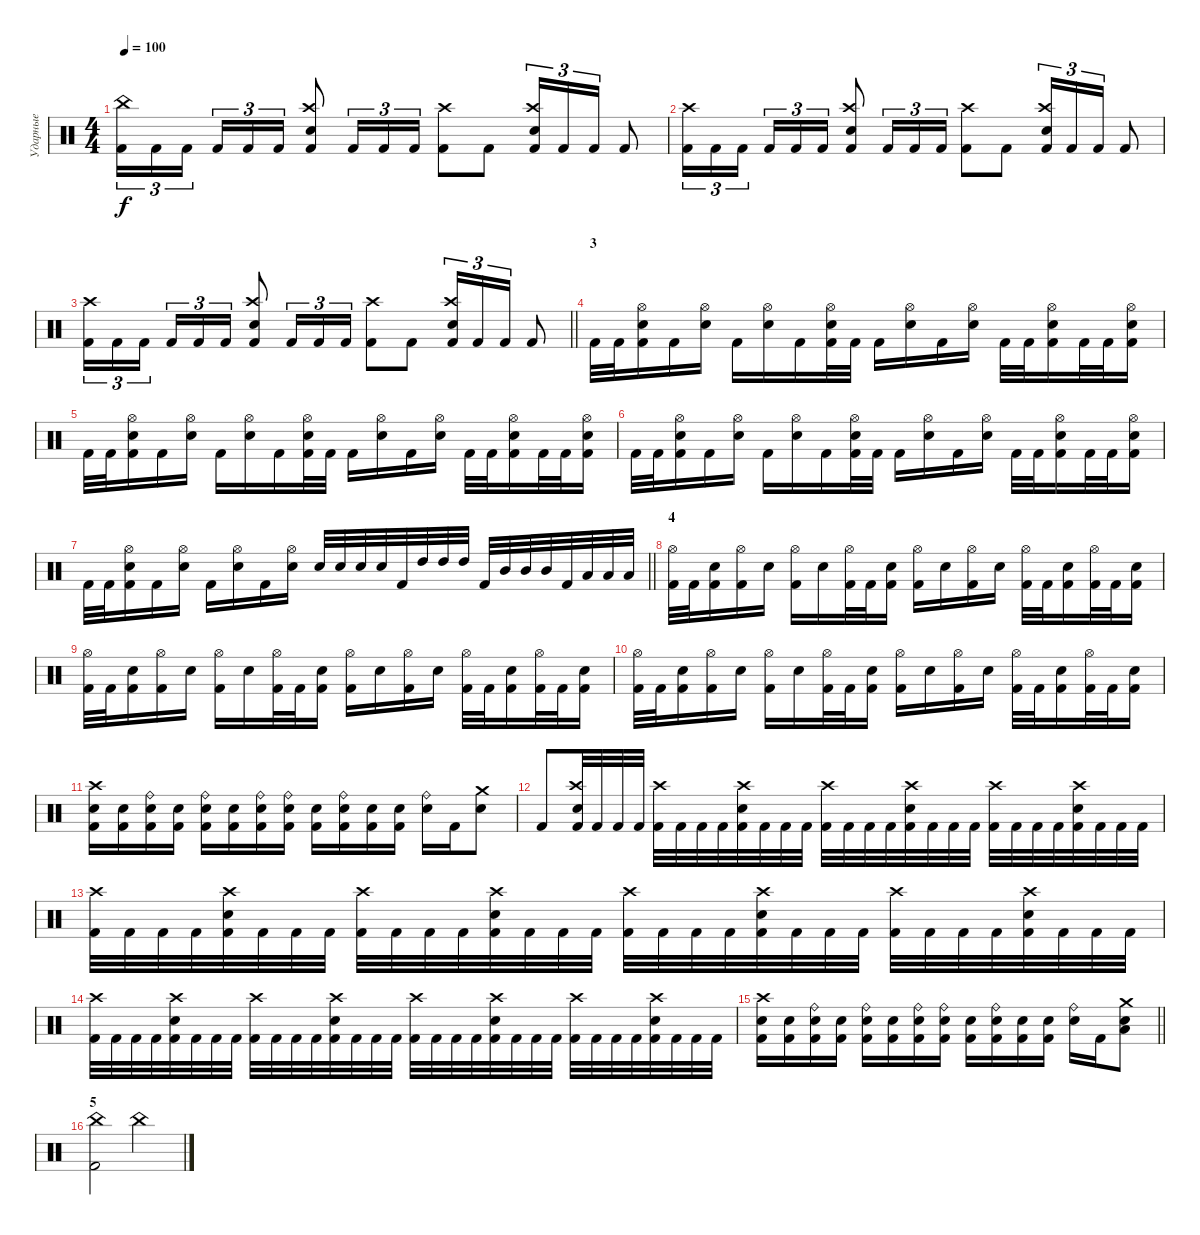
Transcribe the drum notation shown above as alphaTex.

\track ("Ударные" "Ударные") {instrument percussion}
\staff {score}
\articulation defaults
\ts (4 4)
\tempo 100
\clef neutral
\ks c
("China (hit)" "Kick (hit) 2").16{tu (3 2) dy f} "Kick (hit) 2".16{tu (3 2)} "Kick (hit) 2".16{tu (3 2) beam splitsecondary} "Kick (hit) 2".16{tu (3 2)} "Kick (hit) 2".16{tu (3 2)} "Kick (hit) 2".16{tu (3 2)} ("Crash high (hit)" "Electric Snare (hit)" "Kick (hit) 2").8 "Kick (hit) 2".16{tu (3 2)} "Kick (hit) 2".16{tu (3 2)} "Kick (hit) 2".16{tu (3 2)} ("Crash high (hit)" "Kick (hit) 2").8 "Kick (hit) 2".8 ("Crash high (hit)" "Electric Snare (hit)" "Kick (hit) 2").16{tu (3 2)} "Kick (hit) 2".16{tu (3 2)} "Kick (hit) 2".16{tu (3 2)} "Kick (hit) 2".8 |
("Crash high (hit)" "Kick (hit) 2").16{tu (3 2)} "Kick (hit) 2".16{tu (3 2)} "Kick (hit) 2".16{tu (3 2) beam splitsecondary} "Kick (hit) 2".16{tu (3 2)} "Kick (hit) 2".16{tu (3 2)} "Kick (hit) 2".16{tu (3 2)} ("Crash high (hit)" "Electric Snare (hit)" "Kick (hit) 2").8 "Kick (hit) 2".16{tu (3 2)} "Kick (hit) 2".16{tu (3 2)} "Kick (hit) 2".16{tu (3 2)} ("Crash high (hit)" "Kick (hit) 2").8 "Kick (hit) 2".8 ("Crash high (hit)" "Electric Snare (hit)" "Kick (hit) 2").16{tu (3 2)} "Kick (hit) 2".16{tu (3 2)} "Kick (hit) 2".16{tu (3 2)} "Kick (hit) 2".8 |
\barLineRight lightlight
("Crash high (hit)" "Kick (hit) 2").16{tu (3 2)} "Kick (hit) 2".16{tu (3 2)} "Kick (hit) 2".16{tu (3 2) beam splitsecondary} "Kick (hit) 2".16{tu (3 2)} "Kick (hit) 2".16{tu (3 2)} "Kick (hit) 2".16{tu (3 2)} ("Crash high (hit)" "Electric Snare (hit)" "Kick (hit) 2").8 "Kick (hit) 2".16{tu (3 2)} "Kick (hit) 2".16{tu (3 2)} "Kick (hit) 2".16{tu (3 2)} ("Crash high (hit)" "Kick (hit) 2").8 "Kick (hit) 2".8 ("Crash high (hit)" "Electric Snare (hit)" "Kick (hit) 2").16{tu (3 2)} "Kick (hit) 2".16{tu (3 2)} "Kick (hit) 2".16{tu (3 2)} "Kick (hit) 2".8 |
\section ("" "3")
"Kick (hit) 2".32 "Kick (hit) 2".32 ("Hi-Hat (open)" "Electric Snare (hit)" "Kick (hit) 2").16 "Kick (hit) 2".16 ("Hi-Hat (open)" "Electric Snare (hit)").16 "Kick (hit) 2".16 ("Hi-Hat (open)" "Electric Snare (hit)").16 "Kick (hit) 2".16 ("Hi-Hat (open)" "Electric Snare (hit)" "Kick (hit) 2").32 "Kick (hit) 2".32 "Kick (hit) 2".16 ("Hi-Hat (open)" "Electric Snare (hit)").16 "Kick (hit) 2".16 ("Hi-Hat (open)" "Electric Snare (hit)").16 "Kick (hit) 2".32 "Kick (hit) 2".32 ("Hi-Hat (open)" "Electric Snare (hit)" "Kick (hit) 2").16 "Kick (hit) 2".32 "Kick (hit) 2".32 ("Hi-Hat (open)" "Electric Snare (hit)" "Kick (hit) 2").16 |
"Kick (hit) 2".32 "Kick (hit) 2".32 ("Hi-Hat (open)" "Electric Snare (hit)" "Kick (hit) 2").16 "Kick (hit) 2".16 ("Hi-Hat (open)" "Electric Snare (hit)").16 "Kick (hit) 2".16 ("Hi-Hat (open)" "Electric Snare (hit)").16 "Kick (hit) 2".16 ("Hi-Hat (open)" "Electric Snare (hit)" "Kick (hit) 2").32 "Kick (hit) 2".32 "Kick (hit) 2".16 ("Hi-Hat (open)" "Electric Snare (hit)").16 "Kick (hit) 2".16 ("Hi-Hat (open)" "Electric Snare (hit)").16 "Kick (hit) 2".32 "Kick (hit) 2".32 ("Hi-Hat (open)" "Electric Snare (hit)" "Kick (hit) 2").16 "Kick (hit) 2".32 "Kick (hit) 2".32 ("Hi-Hat (open)" "Electric Snare (hit)" "Kick (hit) 2").16 |
"Kick (hit) 2".32 "Kick (hit) 2".32 ("Hi-Hat (open)" "Electric Snare (hit)" "Kick (hit) 2").16 "Kick (hit) 2".16 ("Hi-Hat (open)" "Electric Snare (hit)").16 "Kick (hit) 2".16 ("Hi-Hat (open)" "Electric Snare (hit)").16 "Kick (hit) 2".16 ("Hi-Hat (open)" "Electric Snare (hit)" "Kick (hit) 2").32 "Kick (hit) 2".32 "Kick (hit) 2".16 ("Hi-Hat (open)" "Electric Snare (hit)").16 "Kick (hit) 2".16 ("Hi-Hat (open)" "Electric Snare (hit)").16 "Kick (hit) 2".32 "Kick (hit) 2".32 ("Hi-Hat (open)" "Electric Snare (hit)" "Kick (hit) 2").16 "Kick (hit) 2".32 "Kick (hit) 2".32 ("Hi-Hat (open)" "Electric Snare (hit)" "Kick (hit) 2").16 |
\barLineRight lightlight "Kick (hit) 2".32 "Kick (hit) 2".32
("Hi-Hat (open)" "Electric Snare (hit)" "Kick (hit) 2").16 "Kick (hit) 2".16 ("Hi-Hat (open)" "Electric Snare (hit)").16 "Kick (hit) 2".16 ("Hi-Hat (open)" "Electric Snare (hit)").16 "Kick (hit) 2".16 ("Hi-Hat (open)" "Electric Snare (hit)").16 "Electric Snare (hit)".32 "Electric Snare (hit)".32 "Electric Snare (hit)".32 "Electric Snare (hit)".32 "Kick (hit) 2".32 "High Tom (hit)".32 "High Tom (hit)".32 "High Tom (hit)".32 "Kick (hit) 2".32 "Mid Tom (hit)".32 "Mid Tom (hit)".32 "Mid Tom (hit)".32 "Kick (hit) 2".32 "Low Tom (hit)".32 "Low Tom (hit)".32 "Low Tom (hit)".32 |
\section ("" "4")
("Hi-Hat (open)" "Kick (hit) 2").32 "Kick (hit) 2".32 ("Electric Snare (hit)" "Kick (hit) 2").16 ("Hi-Hat (open)" "Kick (hit) 2").16 "Electric Snare (hit)".16 ("Hi-Hat (open)" "Kick (hit) 2").16 "Electric Snare (hit)".16 ("Hi-Hat (open)" "Kick (hit) 2").32 "Kick (hit) 2".32 ("Electric Snare (hit)" "Kick (hit) 2").16 ("Hi-Hat (open)" "Kick (hit) 2").16 "Electric Snare (hit)".16 ("Hi-Hat (open)" "Kick (hit) 2").16 "Electric Snare (hit)".16 ("Hi-Hat (open)" "Kick (hit) 2").32 "Kick (hit) 2".32 ("Electric Snare (hit)" "Kick (hit) 2").16 ("Hi-Hat (open)" "Kick (hit) 2").32 "Kick (hit) 2".32 ("Electric Snare (hit)" "Kick (hit) 2").16 |
("Hi-Hat (open)" "Kick (hit) 2").32 "Kick (hit) 2".32 ("Electric Snare (hit)" "Kick (hit) 2").16 ("Hi-Hat (open)" "Kick (hit) 2").16 "Electric Snare (hit)".16 ("Hi-Hat (open)" "Kick (hit) 2").16 "Electric Snare (hit)".16 ("Hi-Hat (open)" "Kick (hit) 2").32 "Kick (hit) 2".32 ("Electric Snare (hit)" "Kick (hit) 2").16 ("Hi-Hat (open)" "Kick (hit) 2").16 "Electric Snare (hit)".16 ("Hi-Hat (open)" "Kick (hit) 2").16 "Electric Snare (hit)".16 ("Hi-Hat (open)" "Kick (hit) 2").32 "Kick (hit) 2".32 ("Electric Snare (hit)" "Kick (hit) 2").16 ("Hi-Hat (open)" "Kick (hit) 2").32 "Kick (hit) 2".32 ("Electric Snare (hit)" "Kick (hit) 2").16 |
("Hi-Hat (open)" "Kick (hit) 2").32 "Kick (hit) 2".32 ("Electric Snare (hit)" "Kick (hit) 2").16 ("Hi-Hat (open)" "Kick (hit) 2").16 "Electric Snare (hit)".16 ("Hi-Hat (open)" "Kick (hit) 2").16 "Electric Snare (hit)".16 ("Hi-Hat (open)" "Kick (hit) 2").32 "Kick (hit) 2".32 ("Electric Snare (hit)" "Kick (hit) 2").16 ("Hi-Hat (open)" "Kick (hit) 2").16 "Electric Snare (hit)".16 ("Hi-Hat (open)" "Kick (hit) 2").16 "Electric Snare (hit)".16 ("Hi-Hat (open)" "Kick (hit) 2").32 "Kick (hit) 2".32 ("Electric Snare (hit)" "Kick (hit) 2").16 ("Hi-Hat (open)" "Kick (hit) 2").32 "Kick (hit) 2".32 ("Electric Snare (hit)" "Kick (hit) 2").16 |
("Crash high (hit)" "Electric Snare (hit)" "Kick (hit) 2").16 ("Electric Snare (hit)" "Kick (hit) 2").16 ("Ride (bell)" "Electric Snare (hit)" "Kick (hit) 2").16 ("Electric Snare (hit)" "Kick (hit) 2").16 ("Ride (bell)" "Electric Snare (hit)" "Kick (hit) 2").16 ("Electric Snare (hit)" "Kick (hit) 2").16 ("Ride (bell)" "Electric Snare (hit)" "Kick (hit) 2").16 ("Ride (bell)" "Electric Snare (hit)" "Kick (hit) 2").16 ("Electric Snare (hit)" "Kick (hit) 2").16 ("Ride (bell)" "Electric Snare (hit)" "Kick (hit) 2").16 ("Electric Snare (hit)" "Kick (hit) 2").16 ("Electric Snare (hit)" "Kick (hit) 2").16 ("Ride (bell)" "Electric Snare (hit)").16 "Kick (hit) 2".16 ("Crash medium (hit)" "Electric Snare (hit)").8 |
"Kick (hit) 2".8 ("Crash high (hit)" "Electric Snare (hit)" "Kick (hit) 2").32 "Kick (hit) 2".32 "Kick (hit) 2".32 "Kick (hit) 2".32 ("Crash high (hit)" "Kick (hit) 2").32 "Kick (hit) 2".32 "Kick (hit) 2".32 "Kick (hit) 2".32 ("Crash high (hit)" "Electric Snare (hit)" "Kick (hit) 2").32 "Kick (hit) 2".32 "Kick (hit) 2".32 "Kick (hit) 2".32 ("Crash high (hit)" "Kick (hit) 2").32 "Kick (hit) 2".32 "Kick (hit) 2".32 "Kick (hit) 2".32 ("Crash high (hit)" "Electric Snare (hit)" "Kick (hit) 2").32 "Kick (hit) 2".32 "Kick (hit) 2".32 "Kick (hit) 2".32 ("Crash high (hit)" "Kick (hit) 2").32 "Kick (hit) 2".32 "Kick (hit) 2".32 "Kick (hit) 2".32 ("Crash high (hit)" "Electric Snare (hit)" "Kick (hit) 2").32 "Kick (hit) 2".32 "Kick (hit) 2".32 "Kick (hit) 2".32 |
("Crash high (hit)" "Kick (hit) 2").32 "Kick (hit) 2".32 "Kick (hit) 2".32 "Kick (hit) 2".32 ("Crash high (hit)" "Electric Snare (hit)" "Kick (hit) 2").32 "Kick (hit) 2".32 "Kick (hit) 2".32 "Kick (hit) 2".32 ("Crash high (hit)" "Kick (hit) 2").32 "Kick (hit) 2".32 "Kick (hit) 2".32 "Kick (hit) 2".32 ("Crash high (hit)" "Electric Snare (hit)" "Kick (hit) 2").32 "Kick (hit) 2".32 "Kick (hit) 2".32 "Kick (hit) 2".32 ("Crash high (hit)" "Kick (hit) 2").32 "Kick (hit) 2".32 "Kick (hit) 2".32 "Kick (hit) 2".32 ("Crash high (hit)" "Electric Snare (hit)" "Kick (hit) 2").32 "Kick (hit) 2".32 "Kick (hit) 2".32 "Kick (hit) 2".32 ("Crash high (hit)" "Kick (hit) 2").32 "Kick (hit) 2".32 "Kick (hit) 2".32 "Kick (hit) 2".32 ("Crash high (hit)" "Electric Snare (hit)" "Kick (hit) 2").32 "Kick (hit) 2".32 "Kick (hit) 2".32 "Kick (hit) 2".32 |
("Crash high (hit)" "Kick (hit) 2").32 "Kick (hit) 2".32 "Kick (hit) 2".32 "Kick (hit) 2".32 ("Crash high (hit)" "Electric Snare (hit)" "Kick (hit) 2").32 "Kick (hit) 2".32 "Kick (hit) 2".32 "Kick (hit) 2".32 ("Crash high (hit)" "Kick (hit) 2").32 "Kick (hit) 2".32 "Kick (hit) 2".32 "Kick (hit) 2".32 ("Crash high (hit)" "Electric Snare (hit)" "Kick (hit) 2").32 "Kick (hit) 2".32 "Kick (hit) 2".32 "Kick (hit) 2".32 ("Crash high (hit)" "Kick (hit) 2").32 "Kick (hit) 2".32 "Kick (hit) 2".32 "Kick (hit) 2".32 ("Crash high (hit)" "Electric Snare (hit)" "Kick (hit) 2").32 "Kick (hit) 2".32 "Kick (hit) 2".32 "Kick (hit) 2".32 ("Crash high (hit)" "Kick (hit) 2").32 "Kick (hit) 2".32 "Kick (hit) 2".32 "Kick (hit) 2".32 ("Crash high (hit)" "Electric Snare (hit)" "Kick (hit) 2").32 "Kick (hit) 2".32 "Kick (hit) 2".32 "Kick (hit) 2".32 |
\barLineRight lightlight
("Crash high (hit)" "Electric Snare (hit)" "Kick (hit) 2").16 ("Electric Snare (hit)" "Kick (hit) 2").16 ("Ride (bell)" "Electric Snare (hit)" "Kick (hit) 2").16 ("Electric Snare (hit)" "Kick (hit) 2").16 ("Ride (bell)" "Electric Snare (hit)" "Kick (hit) 2").16 ("Electric Snare (hit)" "Kick (hit) 2").16 ("Ride (bell)" "Electric Snare (hit)" "Kick (hit) 2").16 ("Ride (bell)" "Electric Snare (hit)" "Kick (hit) 2").16 ("Electric Snare (hit)" "Kick (hit) 2").16 ("Ride (bell)" "Electric Snare (hit)" "Kick (hit) 2").16 ("Electric Snare (hit)" "Kick (hit) 2").16 ("Electric Snare (hit)" "Kick (hit) 2").16 ("Ride (bell)" "Electric Snare (hit)").16 "Kick (hit) 2".16 ("Crash medium (hit)" "Electric Snare (hit)" "Low Tom (hit)").8 |
\section ("" "5")
("China (hit)" "Kick (hit) 2").2 "China (hit)".2
